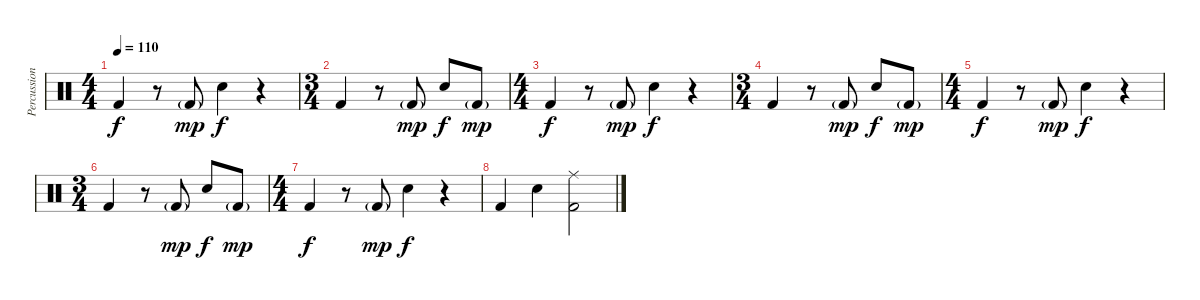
\track ("Percussion" "Percussion") {instrument percussion}
\staff {score}
\articulation defaults
\ts (4 4)
\tempo 110
\clef neutral
\ks c "Kick (hit) 2".4{dy f}
r.8 "Kick (hit) 2"{g}.8{dy mp} "Snare (hit) 2".4{dy f} r.4 |
\ts (3 4)
"Kick (hit) 2".4 r.8 "Kick (hit) 2"{g}.8{dy mp} "Snare (hit) 2".8{dy f} "Kick (hit) 2"{g}.8{dy mp} |
\ts (4 4)
"Kick (hit) 2".4{dy f} r.8 "Kick (hit) 2"{g}.8{dy mp} "Snare (hit) 2".4{dy f} r.4 |
\ts (3 4)
"Kick (hit) 2".4 r.8 "Kick (hit) 2"{g}.8{dy mp} "Snare (hit) 2".8{dy f} "Kick (hit) 2"{g}.8{dy mp} |
\ts (4 4)
"Kick (hit) 2".4{dy f} r.8 "Kick (hit) 2"{g}.8{dy mp} "Snare (hit) 2".4{dy f} r.4 |
\ts (3 4)
"Kick (hit) 2".4 r.8 "Kick (hit) 2"{g}.8{dy mp} "Snare (hit) 2".8{dy f} "Kick (hit) 2"{g}.8{dy mp} |
\ts (4 4)
"Kick (hit) 2".4{dy f} r.8 "Kick (hit) 2"{g}.8{dy mp} "Snare (hit) 2".4{dy f} r.4 |
"Kick (hit) 2".4 "Snare (hit) 2".4 ("Ride (middle)" "Kick (hit) 2").2
